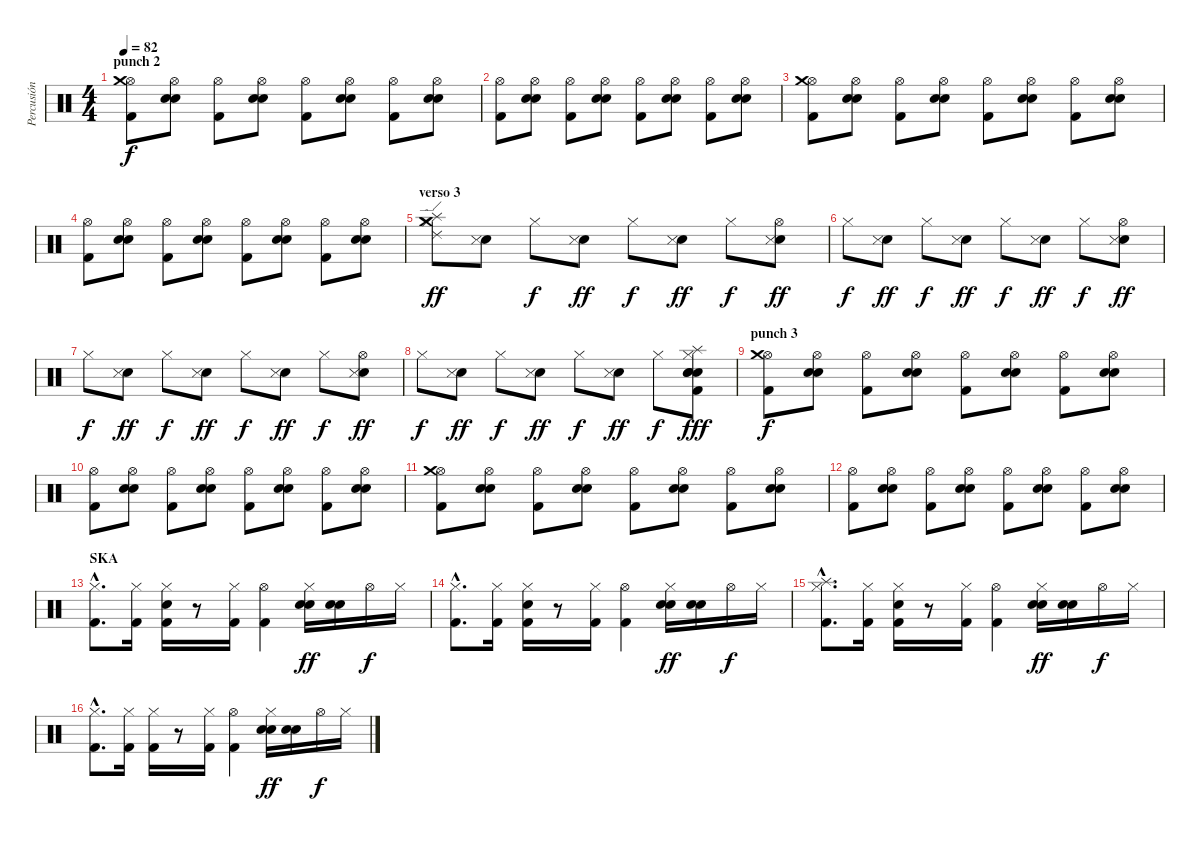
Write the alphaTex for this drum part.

\track ("Percusión" "Percusión") {instrument percussion}
\staff {score}
\articulation defaults
\ts (4 4)
\section ("" "punch 2")
\tempo 82
\clef neutral
\ks c
("Hi-Hat (open)" "Crash medium (hit)" "Kick (hit) 2").8{dy f} ("Snare (hit) 2" "Electric Snare (hit)" "Hi-Hat (open)").8 ("Hi-Hat (open)" "Kick (hit) 2").8 ("Snare (hit) 2" "Electric Snare (hit)" "Hi-Hat (open)").8 ("Hi-Hat (open)" "Kick (hit) 2").8 ("Snare (hit) 2" "Electric Snare (hit)" "Hi-Hat (open)").8 ("Hi-Hat (open)" "Kick (hit) 2").8 ("Snare (hit) 2" "Electric Snare (hit)" "Hi-Hat (open)").8 |
("Hi-Hat (open)" "Kick (hit) 2").8 ("Snare (hit) 2" "Electric Snare (hit)" "Hi-Hat (open)").8 ("Hi-Hat (open)" "Kick (hit) 2").8 ("Snare (hit) 2" "Electric Snare (hit)" "Hi-Hat (open)").8 ("Hi-Hat (open)" "Kick (hit) 2").8 ("Snare (hit) 2" "Electric Snare (hit)" "Hi-Hat (open)").8 ("Hi-Hat (open)" "Kick (hit) 2").8 ("Snare (hit) 2" "Electric Snare (hit)" "Hi-Hat (open)").8 |
("Hi-Hat (open)" "Crash medium (hit)" "Kick (hit) 2").8 ("Snare (hit) 2" "Electric Snare (hit)" "Hi-Hat (open)").8 ("Hi-Hat (open)" "Kick (hit) 2").8 ("Snare (hit) 2" "Electric Snare (hit)" "Hi-Hat (open)").8 ("Hi-Hat (open)" "Kick (hit) 2").8 ("Snare (hit) 2" "Electric Snare (hit)" "Hi-Hat (open)").8 ("Hi-Hat (open)" "Kick (hit) 2").8 ("Snare (hit) 2" "Electric Snare (hit)" "Hi-Hat (open)").8 |
("Hi-Hat (open)" "Kick (hit) 2").8 ("Snare (hit) 2" "Electric Snare (hit)" "Hi-Hat (open)").8 ("Hi-Hat (open)" "Kick (hit) 2").8 ("Snare (hit) 2" "Electric Snare (hit)" "Hi-Hat (open)").8 ("Hi-Hat (open)" "Kick (hit) 2").8 ("Snare (hit) 2" "Electric Snare (hit)" "Hi-Hat (open)").8 ("Hi-Hat (open)" "Kick (hit) 2").8 ("Snare (hit) 2" "Electric Snare (hit)" "Hi-Hat (open)").8 |
\section ("" "verso 3")
("Hi-Hat (closed)" "Splash (hit)" "Crash medium (hit)" "Ride (edge) 2").8{dy ff} ("Electric Snare (hit)" "Snare (side stick) 3").8 "Hi-Hat (closed)".8{dy f} ("Electric Snare (hit)" "Snare (side stick) 3").8{dy ff} "Hi-Hat (closed)".8{dy f} ("Electric Snare (hit)" "Snare (side stick) 3").8{dy ff} "Hi-Hat (closed)".8{dy f} ("Electric Snare (hit)" "Snare (side stick) 3" "Hi-Hat (open)").8{dy ff} |
"Hi-Hat (closed)".8{dy f} ("Electric Snare (hit)" "Snare (side stick) 3").8{dy ff} "Hi-Hat (closed)".8{dy f} ("Electric Snare (hit)" "Snare (side stick) 3").8{dy ff} "Hi-Hat (closed)".8{dy f} ("Electric Snare (hit)" "Snare (side stick) 3").8{dy ff} "Hi-Hat (closed)".8{dy f} ("Electric Snare (hit)" "Snare (side stick) 3" "Hi-Hat (open)").8{dy ff} |
"Hi-Hat (closed)".8{dy f} ("Electric Snare (hit)" "Snare (side stick) 3").8{dy ff} "Hi-Hat (closed)".8{dy f} ("Electric Snare (hit)" "Snare (side stick) 3").8{dy ff} "Hi-Hat (closed)".8{dy f} ("Electric Snare (hit)" "Snare (side stick) 3").8{dy ff} "Hi-Hat (closed)".8{dy f} ("Electric Snare (hit)" "Snare (side stick) 3" "Hi-Hat (open)").8{dy ff} |
"Hi-Hat (closed)".8{dy f} ("Electric Snare (hit)" "Snare (side stick) 3").8{dy ff} "Hi-Hat (closed)".8{dy f} ("Electric Snare (hit)" "Snare (side stick) 3").8{dy ff} "Hi-Hat (closed)".8{dy f} ("Electric Snare (hit)" "Snare (side stick) 3").8{dy ff} "Hi-Hat (closed)".8{dy f} ("Electric Snare (hit)" "Snare (hit) 2" "Kick (hit) 2" "Snare (hit) 2" "Hi-Hat (closed)" "Splash (hit)").8{dy fff} |
\section ("" "punch 3")
("Hi-Hat (open)" "Crash medium (hit)" "Kick (hit) 2").8{dy f} ("Snare (hit) 2" "Electric Snare (hit)" "Hi-Hat (open)").8 ("Hi-Hat (open)" "Kick (hit) 2").8 ("Snare (hit) 2" "Electric Snare (hit)" "Hi-Hat (open)").8 ("Hi-Hat (open)" "Kick (hit) 2").8 ("Snare (hit) 2" "Electric Snare (hit)" "Hi-Hat (open)").8 ("Hi-Hat (open)" "Kick (hit) 2").8 ("Snare (hit) 2" "Electric Snare (hit)" "Hi-Hat (open)").8 |
("Hi-Hat (open)" "Kick (hit) 2").8 ("Snare (hit) 2" "Electric Snare (hit)" "Hi-Hat (open)").8 ("Hi-Hat (open)" "Kick (hit) 2").8 ("Snare (hit) 2" "Electric Snare (hit)" "Hi-Hat (open)").8 ("Hi-Hat (open)" "Kick (hit) 2").8 ("Snare (hit) 2" "Electric Snare (hit)" "Hi-Hat (open)").8 ("Hi-Hat (open)" "Kick (hit) 2").8 ("Snare (hit) 2" "Electric Snare (hit)" "Hi-Hat (open)").8 |
("Hi-Hat (open)" "Crash medium (hit)" "Kick (hit) 2").8 ("Snare (hit) 2" "Electric Snare (hit)" "Hi-Hat (open)").8 ("Hi-Hat (open)" "Kick (hit) 2").8 ("Snare (hit) 2" "Electric Snare (hit)" "Hi-Hat (open)").8 ("Hi-Hat (open)" "Kick (hit) 2").8 ("Snare (hit) 2" "Electric Snare (hit)" "Hi-Hat (open)").8 ("Hi-Hat (open)" "Kick (hit) 2").8 ("Snare (hit) 2" "Electric Snare (hit)" "Hi-Hat (open)").8 |
("Hi-Hat (open)" "Kick (hit) 2").8 ("Snare (hit) 2" "Electric Snare (hit)" "Hi-Hat (open)").8 ("Hi-Hat (open)" "Kick (hit) 2").8 ("Snare (hit) 2" "Electric Snare (hit)" "Hi-Hat (open)").8 ("Hi-Hat (open)" "Kick (hit) 2").8 ("Snare (hit) 2" "Electric Snare (hit)" "Hi-Hat (open)").8 ("Hi-Hat (open)" "Kick (hit) 2").8 ("Snare (hit) 2" "Electric Snare (hit)" "Hi-Hat (open)").8 |
\section ("" "SKA")
("Hi-Hat (closed)"{hac} "Kick (hit) 2"{hac}).8{d} ("Hi-Hat (closed)" "Kick (hit) 2").16 ("Hi-Hat (closed)" "Electric Snare (hit)" "Kick (hit) 2").16 r.8 ("Hi-Hat (closed)" "Kick (hit) 2").16 ("Hi-Hat (open)" "Kick (hit) 2").4 ("Hi-Hat (closed)" "Electric Snare (hit)" "Electric Snare (hit)").16{dy ff} ("Electric Snare (hit)" "Electric Snare (hit)").16 "Hi-Hat (open)".16{dy f} "Hi-Hat (closed)".16 |
("Hi-Hat (closed)"{hac} "Kick (hit) 2"{hac}).8{d} ("Hi-Hat (closed)" "Kick (hit) 2").16 ("Hi-Hat (closed)" "Electric Snare (hit)" "Kick (hit) 2").16 r.8 ("Hi-Hat (closed)" "Kick (hit) 2").16 ("Hi-Hat (open)" "Kick (hit) 2").4 ("Hi-Hat (closed)" "Electric Snare (hit)" "Electric Snare (hit)").16{dy ff} ("Electric Snare (hit)" "Electric Snare (hit)").16 "Hi-Hat (open)".16{dy f} "Hi-Hat (closed)".16 |
("Hi-Hat (closed)"{hac} "Splash (hit)"{hac} "Kick (hit) 2"{hac}).8{d} ("Hi-Hat (closed)" "Kick (hit) 2").16 ("Hi-Hat (closed)" "Electric Snare (hit)" "Kick (hit) 2").16 r.8 ("Hi-Hat (closed)" "Kick (hit) 2").16 ("Hi-Hat (open)" "Kick (hit) 2").4 ("Hi-Hat (closed)" "Electric Snare (hit)" "Electric Snare (hit)").16{dy ff} ("Electric Snare (hit)" "Electric Snare (hit)").16 "Hi-Hat (open)".16{dy f} "Hi-Hat (closed)".16 |
("Hi-Hat (closed)"{hac} "Kick (hit) 2"{hac}).8{d} ("Hi-Hat (closed)" "Kick (hit) 2").16 ("Hi-Hat (closed)" "Kick (hit) 2").16 r.8 ("Hi-Hat (closed)" "Kick (hit) 2").16 ("Hi-Hat (open)" "Kick (hit) 2").4 ("Hi-Hat (closed)" "Electric Snare (hit)" "Electric Snare (hit)").16{dy ff} ("Electric Snare (hit)" "Electric Snare (hit)").16 "Hi-Hat (open)".16{dy f} "Hi-Hat (closed)".16
